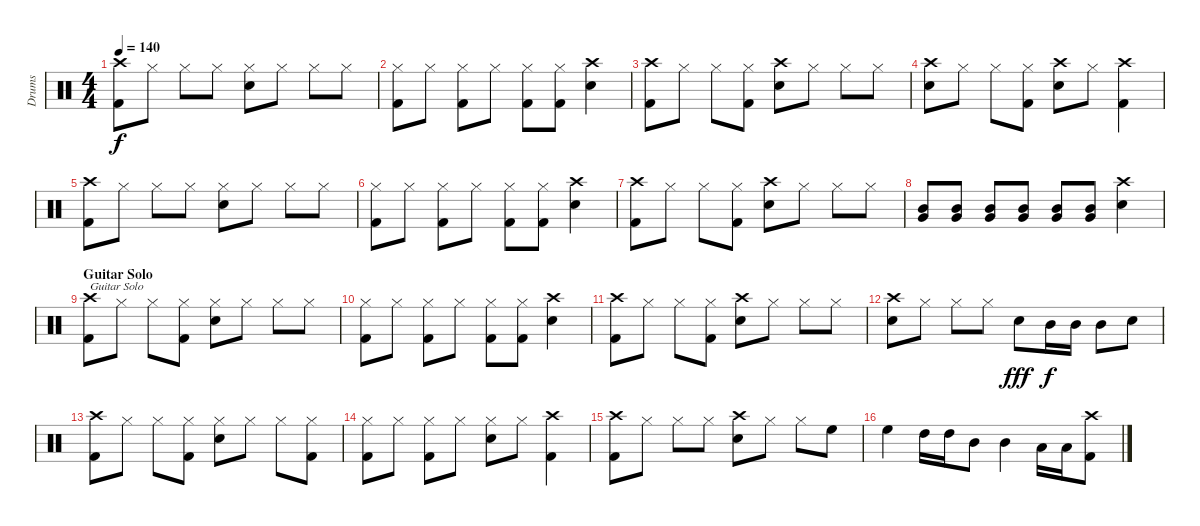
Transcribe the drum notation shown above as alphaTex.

\track ("Drums" "Drums") {instrument percussion}
\staff {score}
\articulation defaults
\ts (4 4)
\tempo 140
\clef neutral
\ks c
("Crash high (hit)" "Kick (hit) 2").8{dy f} "Hi-Hat (closed)".8 "Hi-Hat (closed)".8 "Hi-Hat (closed)".8 ("Hi-Hat (closed)" "Snare (hit) 2").8 "Hi-Hat (closed)".8 "Hi-Hat (closed)".8 "Hi-Hat (closed)".8 |
("Hi-Hat (closed)" "Kick (hit) 2").8 "Hi-Hat (closed)".8 ("Hi-Hat (closed)" "Kick (hit) 2").8 "Hi-Hat (closed)".8 ("Hi-Hat (closed)" "Kick (hit) 2").8 ("Hi-Hat (closed)" "Kick (hit) 2").8 ("Crash high (hit)" "Snare (hit) 2").4 |
("Crash high (hit)" "Kick (hit) 2").8 "Hi-Hat (closed)".8 "Hi-Hat (closed)".8 ("Hi-Hat (closed)" "Kick (hit) 2").8 ("Crash high (hit)" "Snare (hit) 2").8 "Hi-Hat (closed)".8 "Hi-Hat (closed)".8 "Hi-Hat (closed)".8 |
("Crash high (hit)" "Snare (hit) 2").8 "Hi-Hat (closed)".8 "Hi-Hat (closed)".8 ("Hi-Hat (closed)" "Kick (hit) 2").8 ("Crash high (hit)" "Snare (hit) 2").8 "Hi-Hat (closed)".8 ("Crash high (hit)" "Kick (hit) 2").4 |
("Crash high (hit)" "Kick (hit) 2").8 "Hi-Hat (closed)".8 "Hi-Hat (closed)".8 "Hi-Hat (closed)".8 ("Hi-Hat (closed)" "Snare (hit) 2").8 "Hi-Hat (closed)".8 "Hi-Hat (closed)".8 "Hi-Hat (closed)".8 |
("Hi-Hat (closed)" "Kick (hit) 2").8 "Hi-Hat (closed)".8 ("Hi-Hat (closed)" "Kick (hit) 2").8 "Hi-Hat (closed)".8 ("Hi-Hat (closed)" "Kick (hit) 2").8 ("Hi-Hat (closed)" "Kick (hit) 2").8 ("Crash high (hit)" "Snare (hit) 2").4 |
("Crash high (hit)" "Kick (hit) 2").8 "Hi-Hat (closed)".8 "Hi-Hat (closed)".8 ("Hi-Hat (closed)" "Kick (hit) 2").8 ("Crash high (hit)" "Snare (hit) 2").8 "Hi-Hat (closed)".8 "Hi-Hat (closed)".8 "Hi-Hat (closed)".8 |
("Mid Tom (hit)" "Very Low Tom (hit)").8 ("Mid Tom (hit)" "Very Low Tom (hit)").8 ("Mid Tom (hit)" "Very Low Tom (hit)").8 ("Mid Tom (hit)" "Very Low Tom (hit)").8 ("Mid Tom (hit)" "Very Low Tom (hit)").8 ("Mid Tom (hit)" "Very Low Tom (hit)").8 ("Crash high (hit)" "Snare (hit) 2").4 |
\section ("" "Guitar Solo")
("Crash high (hit)" "Kick (hit) 2").8{txt "Guitar Solo"} "Hi-Hat (closed)".8 "Hi-Hat (closed)".8 ("Hi-Hat (closed)" "Kick (hit) 2").8 ("Hi-Hat (closed)" "Snare (hit) 2").8 "Hi-Hat (closed)".8 "Hi-Hat (closed)".8 "Hi-Hat (closed)".8 |
("Hi-Hat (closed)" "Kick (hit) 2").8 "Hi-Hat (closed)".8 ("Hi-Hat (closed)" "Kick (hit) 2").8 "Hi-Hat (closed)".8 ("Hi-Hat (closed)" "Kick (hit) 2").8 ("Hi-Hat (closed)" "Kick (hit) 2").8 ("Crash high (hit)" "Snare (hit) 2").4 |
("Crash high (hit)" "Kick (hit) 2").8 "Hi-Hat (closed)".8 "Hi-Hat (closed)".8 ("Hi-Hat (closed)" "Kick (hit) 2").8 ("Crash high (hit)" "Snare (hit) 2").8 "Hi-Hat (closed)".8 "Hi-Hat (closed)".8 "Hi-Hat (closed)".8 |
("Crash high (hit)" "Snare (hit) 2").8 "Hi-Hat (closed)".8 "Hi-Hat (closed)".8 "Hi-Hat (closed)".8 "Snare (hit) 2".8{dy fff} "Mid Tom (hit)".16{dy f} "Mid Tom (hit)".16 "Mid Tom (hit)".8 "Snare (hit) 2".8 |
("Crash high (hit)" "Kick (hit) 2").8 "Hi-Hat (closed)".8 "Hi-Hat (closed)".8 ("Hi-Hat (closed)" "Kick (hit) 2").8 ("Hi-Hat (closed)" "Snare (hit) 2").8 "Hi-Hat (closed)".8 "Hi-Hat (closed)".8 ("Hi-Hat (closed)" "Kick (hit) 2").8 |
("Hi-Hat (closed)" "Kick (hit) 2").8 "Hi-Hat (closed)".8 ("Hi-Hat (closed)" "Kick (hit) 2").8 "Hi-Hat (closed)".8 ("Hi-Hat (closed)" "Snare (hit) 2").8 "Hi-Hat (closed)".8 ("Crash high (hit)" "Kick (hit) 2").4 |
("Crash high (hit)" "Kick (hit) 2").8 "Hi-Hat (closed)".8 "Hi-Hat (closed)".8 "Hi-Hat (closed)".8 ("Crash high (hit)" "Snare (hit) 2").8 "Hi-Hat (closed)".8 "Hi-Hat (closed)".8 "High Floor Tom (hit)".8 |
"High Floor Tom (hit)".4 "High Tom (hit)".16 "High Tom (hit)".16 "Mid Tom (hit)".8 "Mid Tom (hit)".4 "Low Tom (hit)".16 "Low Tom (hit)".16 ("Crash high (hit)" "Kick (hit) 2").8
